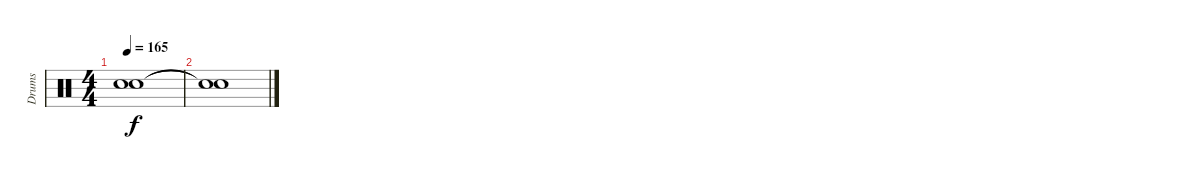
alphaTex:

\track ("Drums" "Drums") {instrument percussion}
\staff {score}
\articulation defaults
\ts (4 4)
\tempo 165
\clef neutral
\ks c
("Snare (hit)"{t} "Snare (hit)"{t}).1{dy f} |
("Snare (hit)"{t} "Snare (hit)"{t}).1
